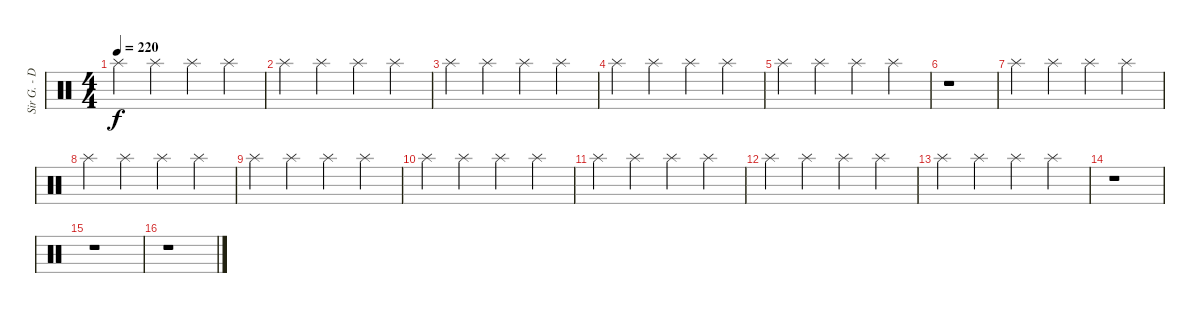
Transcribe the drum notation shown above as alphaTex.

\track ("Sir G. - Drums" "Sir G. - D") {instrument percussion}
\staff {score}
\articulation defaults
\ts (4 4)
\tempo 220
\clef neutral
\ks c "Splash (hit)".4{dy f} "Splash (hit)".4 "Splash (hit)".4 "Splash (hit)".4
|
"Splash (hit)".4 "Splash (hit)".4 "Splash (hit)".4 "Splash (hit)".4 |
"Splash (hit)".4 "Splash (hit)".4 "Splash (hit)".4 "Splash (hit)".4 |
"Splash (hit)".4 "Splash (hit)".4 "Splash (hit)".4 "Splash (hit)".4 |
"Splash (hit)".4 "Splash (hit)".4 "Splash (hit)".4 "Splash (hit)".4 |
r.1 |
"Splash (hit)".4 "Splash (hit)".4 "Splash (hit)".4 "Splash (hit)".4 |
"Splash (hit)".4 "Splash (hit)".4 "Splash (hit)".4 "Splash (hit)".4 |
"Splash (hit)".4 "Splash (hit)".4 "Splash (hit)".4 "Splash (hit)".4 |
"Splash (hit)".4 "Splash (hit)".4 "Splash (hit)".4 "Splash (hit)".4 |
"Splash (hit)".4 "Splash (hit)".4 "Splash (hit)".4 "Splash (hit)".4 |
"Splash (hit)".4 "Splash (hit)".4 "Splash (hit)".4 "Splash (hit)".4 |
"Splash (hit)".4 "Splash (hit)".4 "Splash (hit)".4 "Splash (hit)".4 |
r.1 |
r.1 |
r.1
